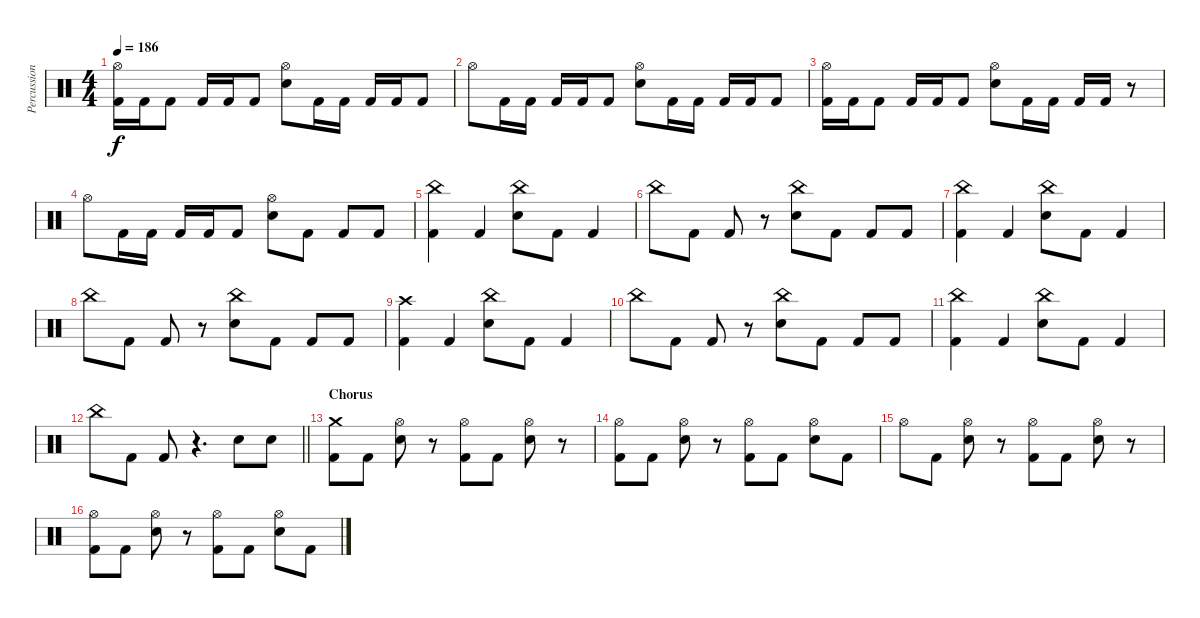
\track ("Percussion" "Percussion") {instrument percussion}
\staff {score}
\articulation defaults
\ts (4 4)
\tempo 186
\clef neutral
\ks c
("Hi-Hat (open)" "Kick (hit) 2").16{dy f} "Kick (hit) 2".16 "Kick (hit) 2".8 "Kick (hit) 2".16 "Kick (hit) 2".16 "Kick (hit) 2".8 ("Hi-Hat (open)" "Snare (hit) 2").8 "Kick (hit) 2".16 "Kick (hit) 2".16 "Kick (hit) 2".16 "Kick (hit) 2".16 "Kick (hit) 2".8 |
"Hi-Hat (open)".8 "Kick (hit) 2".16 "Kick (hit) 2".16 "Kick (hit) 2".16 "Kick (hit) 2".16 "Kick (hit) 2".8 ("Hi-Hat (open)" "Snare (hit) 2").8 "Kick (hit) 2".16 "Kick (hit) 2".16 "Kick (hit) 2".16 "Kick (hit) 2".16 "Kick (hit) 2".8 |
("Hi-Hat (open)" "Kick (hit) 2").16 "Kick (hit) 2".16 "Kick (hit) 2".8 "Kick (hit) 2".16 "Kick (hit) 2".16 "Kick (hit) 2".8 ("Hi-Hat (open)" "Snare (hit) 2").8 "Kick (hit) 2".16 "Kick (hit) 2".16 "Kick (hit) 2".16 "Kick (hit) 2".16 r.8 |
"Hi-Hat (open)".8 "Kick (hit) 2".16 "Kick (hit) 2".16 "Kick (hit) 2".16 "Kick (hit) 2".16 "Kick (hit) 2".8 ("Hi-Hat (open)" "Snare (hit) 2").8 "Kick (hit) 2".8 "Kick (hit) 2".8 "Kick (hit) 2".8 |
("China (hit)" "Kick (hit) 2").4 "Kick (hit) 2".4 ("China (hit)" "Snare (hit) 2").8 "Kick (hit) 2".8 "Kick (hit) 2".4 |
"China (hit)".8 "Kick (hit) 2".8 "Kick (hit) 2".8 r.8 ("China (hit)" "Snare (hit) 2").8 "Kick (hit) 2".8 "Kick (hit) 2".8 "Kick (hit) 2".8 |
("China (hit)" "Kick (hit) 2").4 "Kick (hit) 2".4 ("China (hit)" "Snare (hit) 2").8 "Kick (hit) 2".8 "Kick (hit) 2".4 |
"China (hit)".8 "Kick (hit) 2".8 "Kick (hit) 2".8 r.8 ("China (hit)" "Snare (hit) 2").8 "Kick (hit) 2".8 "Kick (hit) 2".8 "Kick (hit) 2".8 |
("Crash high (hit)" "Kick (hit) 2").4 "Kick (hit) 2".4 ("China (hit)" "Snare (hit) 2").8 "Kick (hit) 2".8 "Kick (hit) 2".4 |
"China (hit)".8 "Kick (hit) 2".8 "Kick (hit) 2".8 r.8 ("China (hit)" "Snare (hit) 2").8 "Kick (hit) 2".8 "Kick (hit) 2".8 "Kick (hit) 2".8 |
("China (hit)" "Kick (hit) 2").4 "Kick (hit) 2".4 ("China (hit)" "Snare (hit) 2").8 "Kick (hit) 2".8 "Kick (hit) 2".4 |
\barLineRight lightlight "China (hit)".8 "Kick (hit) 2".8 "Kick (hit) 2".8
r.4{d} "Snare (hit) 2".8 "Snare (hit) 2".8 |
\section ("" "Chorus")
("Crash medium (hit)" "Kick (hit) 2").8 "Kick (hit) 2".8 ("Hi-Hat (open)" "Snare (hit) 2").8 r.8 ("Hi-Hat (open)" "Kick (hit) 2").8 "Kick (hit) 2".8 ("Hi-Hat (open)" "Snare (hit) 2").8 r.8 |
("Hi-Hat (open)" "Kick (hit) 2").8 "Kick (hit) 2".8 ("Hi-Hat (open)" "Snare (hit) 2").8 r.8 ("Hi-Hat (open)" "Kick (hit) 2").8 "Kick (hit) 2".8 ("Hi-Hat (open)" "Snare (hit) 2").8 "Kick (hit) 2".8 |
"Hi-Hat (open)".8 "Kick (hit) 2".8 ("Hi-Hat (open)" "Snare (hit) 2").8 r.8 ("Hi-Hat (open)" "Kick (hit) 2").8 "Kick (hit) 2".8 ("Hi-Hat (open)" "Snare (hit) 2").8 r.8 |
("Hi-Hat (open)" "Kick (hit) 2").8 "Kick (hit) 2".8 ("Hi-Hat (open)" "Snare (hit) 2").8 r.8 ("Hi-Hat (open)" "Kick (hit) 2").8 "Kick (hit) 2".8 ("Hi-Hat (open)" "Snare (hit) 2").8 "Kick (hit) 2".8
